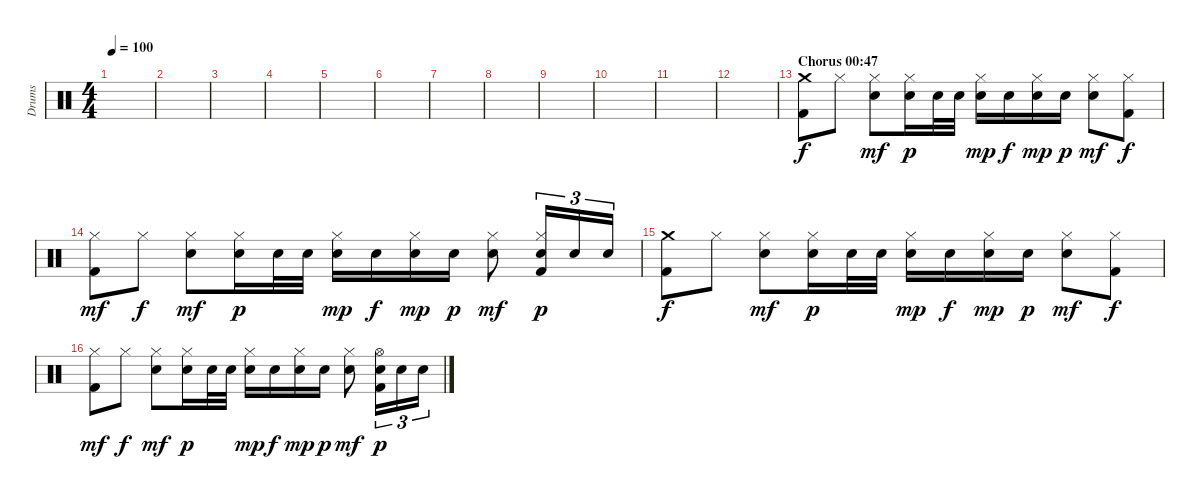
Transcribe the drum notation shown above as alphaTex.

\track ("Drums" "Drums") {instrument percussion}
\staff {score}
\articulation defaults
\ts (4 4)
\tempo 100
\clef neutral
\ks c
|
|
|
|
\section ("" "")
|
|
|
|
|
|
|
|
\section ("" "Chorus 00:47")
("Crash medium (hit)" "Kick (hit) 2").8 "Hi-Hat (closed)".8 ("Hi-Hat (closed)" "Electric Snare (hit)").8{dy mf} ("Hi-Hat (closed)" "Electric Snare (hit)").16{dy p} "Electric Snare (hit)".32 "Electric Snare (hit)".32 ("Hi-Hat (closed)" "Electric Snare (hit)").16{dy mp} "Electric Snare (hit)".16{dy f} ("Hi-Hat (closed)" "Electric Snare (hit)").16{dy mp} "Electric Snare (hit)".16{dy p} ("Hi-Hat (closed)" "Electric Snare (hit)").8{dy mf} ("Hi-Hat (closed)" "Kick (hit) 2").8{dy f} |
("Hi-Hat (closed)" "Kick (hit) 2").8{dy mf} "Hi-Hat (closed)".8{dy f} ("Hi-Hat (closed)" "Electric Snare (hit)").8{dy mf} ("Hi-Hat (closed)" "Electric Snare (hit)").16{dy p} "Electric Snare (hit)".32 "Electric Snare (hit)".32 ("Hi-Hat (closed)" "Electric Snare (hit)").16{dy mp} "Electric Snare (hit)".16{dy f} ("Hi-Hat (closed)" "Electric Snare (hit)").16{dy mp} "Electric Snare (hit)".16{dy p} ("Hi-Hat (closed)" "Electric Snare (hit)").8{dy mf} ("Hi-Hat (closed)" "Electric Snare (hit)" "Kick (hit) 2").16{tu (3 2) dy p} "Electric Snare (hit)".16{tu (3 2)} "Electric Snare (hit)".16{tu (3 2)} |
("Crash medium (hit)" "Kick (hit) 2").8{dy f} "Hi-Hat (closed)".8 ("Hi-Hat (closed)" "Electric Snare (hit)").8{dy mf} ("Hi-Hat (closed)" "Electric Snare (hit)").16{dy p} "Electric Snare (hit)".32 "Electric Snare (hit)".32 ("Hi-Hat (closed)" "Electric Snare (hit)").16{dy mp} "Electric Snare (hit)".16{dy f} ("Hi-Hat (closed)" "Electric Snare (hit)").16{dy mp} "Electric Snare (hit)".16{dy p} ("Hi-Hat (closed)" "Electric Snare (hit)").8{dy mf} ("Hi-Hat (closed)" "Kick (hit) 2").8{dy f} |
("Hi-Hat (closed)" "Kick (hit) 2").8{dy mf} "Hi-Hat (closed)".8{dy f} ("Hi-Hat (closed)" "Electric Snare (hit)").8{dy mf} ("Hi-Hat (closed)" "Electric Snare (hit)").16{dy p} "Electric Snare (hit)".32 "Electric Snare (hit)".32 ("Hi-Hat (closed)" "Electric Snare (hit)").16{dy mp} "Electric Snare (hit)".16{dy f} ("Hi-Hat (closed)" "Electric Snare (hit)").16{dy mp} "Electric Snare (hit)".16{dy p} ("Hi-Hat (closed)" "Electric Snare (hit)").8{dy mf} ("Hi-Hat (open)" "Electric Snare (hit)" "Kick (hit) 2").16{tu (3 2) dy p} "Electric Snare (hit)".16{tu (3 2)} "Electric Snare (hit)".16{tu (3 2)}
